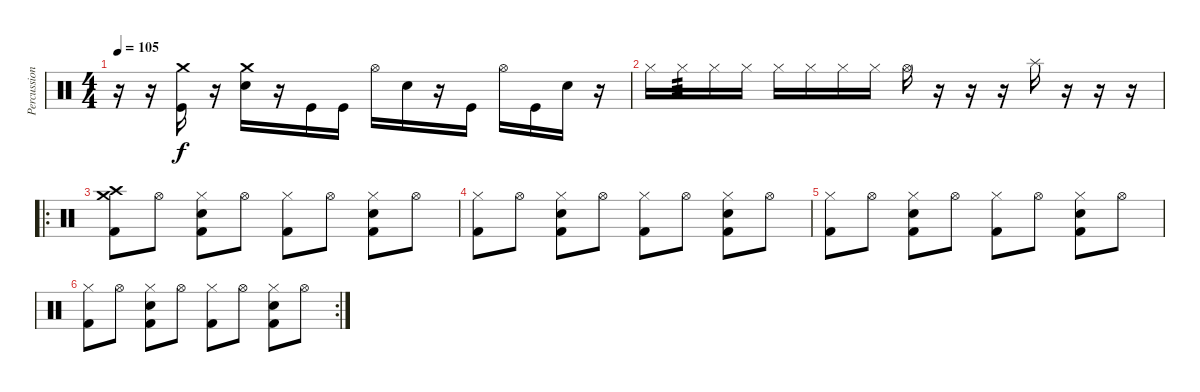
\track ("Percussion" "Percussion") {instrument percussion}
\staff {score}
\articulation defaults
\ts (4 4)
\tempo 105
\clef neutral
\ks c
r.16{dy f} r.16 ("Crash medium (hit)" "Kick (hit)").16 r.16 ("Crash medium (hit)" "Electric Snare (hit)").16 r.16 "Kick (hit)".16 "Kick (hit)".16 "Hi-Hat (open)".16 "Electric Snare (hit)".16 r.16 "Kick (hit)".16 "Hi-Hat (open)".16 "Kick (hit)".16 "Electric Snare (hit)".16 r.16 |
"Hi-Hat (closed)".16 "Hi-Hat (closed)".16{tp 3} "Hi-Hat (closed)".16 "Hi-Hat (closed)".16 "Hi-Hat (closed)".16 "Hi-Hat (closed)".16 "Hi-Hat (closed)".16 "Hi-Hat (closed)".16 "Hi-Hat (open)".16 r.16 r.16 r.16 "Splash (hit)".16 r.16 r.16 r.16 |
\ro
("Crash medium (hit)" "Crash high (hit)" "Kick (hit) 2").8 "Hi-Hat (open)".8 ("Hi-Hat (closed)" "Kick (hit) 2" "Electric Snare (hit)").8 "Hi-Hat (open)".8 ("Hi-Hat (closed)" "Kick (hit) 2").8 "Hi-Hat (open)".8 ("Hi-Hat (closed)" "Kick (hit) 2" "Electric Snare (hit)").8 "Hi-Hat (open)".8 |
("Hi-Hat (closed)" "Kick (hit) 2").8 "Hi-Hat (open)".8 ("Hi-Hat (closed)" "Kick (hit) 2" "Electric Snare (hit)").8 "Hi-Hat (open)".8 ("Hi-Hat (closed)" "Kick (hit) 2").8 "Hi-Hat (open)".8 ("Hi-Hat (closed)" "Kick (hit) 2" "Electric Snare (hit)").8 "Hi-Hat (open)".8 |
("Hi-Hat (closed)" "Kick (hit) 2").8 "Hi-Hat (open)".8 ("Hi-Hat (closed)" "Kick (hit) 2" "Electric Snare (hit)").8 "Hi-Hat (open)".8 ("Hi-Hat (closed)" "Kick (hit) 2").8 "Hi-Hat (open)".8 ("Hi-Hat (closed)" "Kick (hit) 2" "Electric Snare (hit)").8 "Hi-Hat (open)".8 |
\rc 2
("Hi-Hat (closed)" "Kick (hit) 2").8 "Hi-Hat (open)".8 ("Hi-Hat (closed)" "Kick (hit) 2" "Electric Snare (hit)").8 "Hi-Hat (open)".8 ("Hi-Hat (closed)" "Kick (hit) 2").8 "Hi-Hat (open)".8 ("Hi-Hat (closed)" "Kick (hit) 2" "Electric Snare (hit)").8 "Hi-Hat (open)".8
